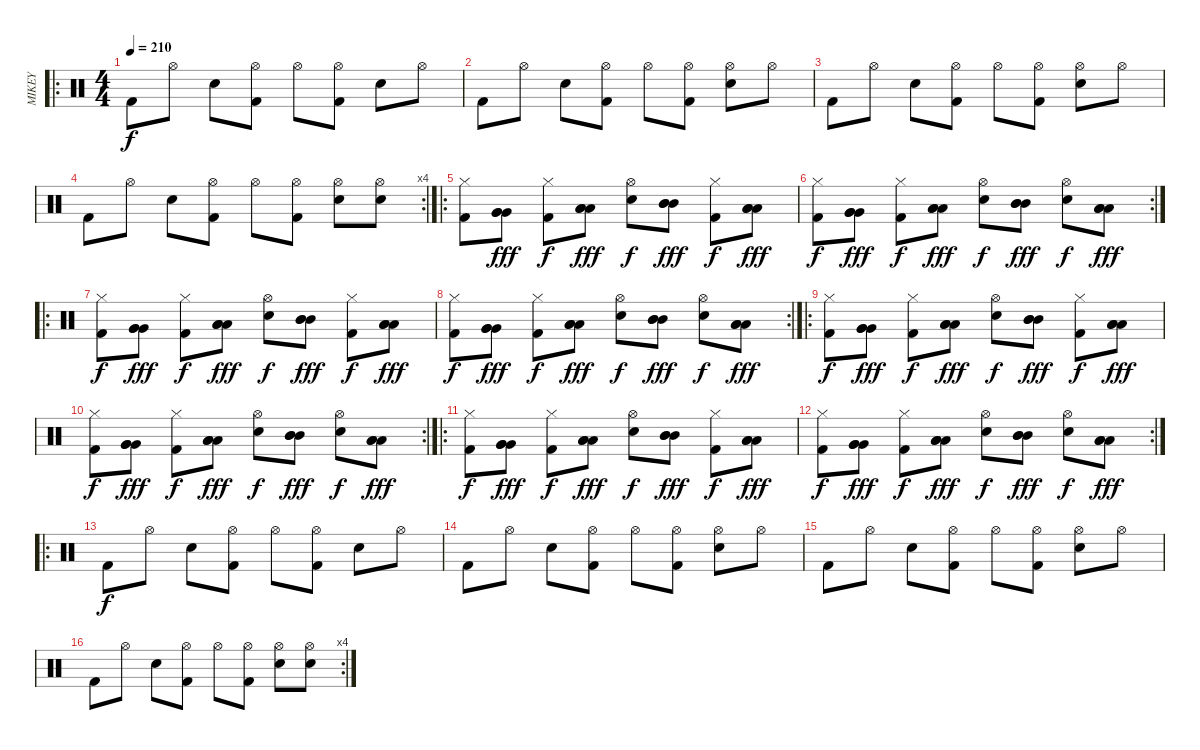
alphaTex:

\track ("MIKEY" "MIKEY") {instrument percussion}
\staff {score}
\articulation defaults
\ro
\ts (4 4)
\tempo 210
\clef neutral
\ks c "Kick (hit) 2".8{dy f} "Hi-Hat (open)".8 "Electric Snare (hit)".8
("Kick (hit) 2" "Hi-Hat (open)").8 "Hi-Hat (open)".8 ("Kick (hit) 2" "Hi-Hat (open)").8 "Electric Snare (hit)".8 "Hi-Hat (open)".8 |
"Kick (hit) 2".8 "Hi-Hat (open)".8 "Electric Snare (hit)".8 ("Kick (hit) 2" "Hi-Hat (open)").8 "Hi-Hat (open)".8 ("Kick (hit) 2" "Hi-Hat (open)").8 ("Electric Snare (hit)" "Hi-Hat (open)").8 "Hi-Hat (open)".8 |
"Kick (hit) 2".8 "Hi-Hat (open)".8 "Electric Snare (hit)".8 ("Kick (hit) 2" "Hi-Hat (open)").8 "Hi-Hat (open)".8 ("Kick (hit) 2" "Hi-Hat (open)").8 ("Electric Snare (hit)" "Hi-Hat (open)").8 "Hi-Hat (open)".8 |
\rc 4 "Kick (hit) 2".8 "Hi-Hat (open)".8 "Electric Snare (hit)".8
("Kick (hit) 2" "Hi-Hat (open)").8 "Hi-Hat (open)".8 ("Kick (hit) 2" "Hi-Hat (open)").8 ("Electric Snare (hit)" "Hi-Hat (open)").8 ("Electric Snare (hit)" "Hi-Hat (open)").8 |
\ro
("Hi-Hat (closed)" "Kick (hit) 2").8 ("Very Low Tom (hit)" "Very Low Tom (hit)" "Very Low Tom (hit)").8{dy fff} ("Hi-Hat (closed)" "Kick (hit) 2").8{dy f} ("Low Tom (hit)" "Low Tom (hit)" "Low Tom (hit)").8{dy fff} ("Hi-Hat (open)" "Electric Snare (hit)").8{dy f} ("Mid Tom (hit)" "Mid Tom (hit)" "Mid Tom (hit)").8{dy fff} ("Hi-Hat (closed)" "Kick (hit) 2").8{dy f} ("Low Tom (hit)" "Low Tom (hit)" "Low Tom (hit)").8{dy fff} |
\rc 2
("Hi-Hat (closed)" "Kick (hit) 2").8{dy f} ("Very Low Tom (hit)" "Very Low Tom (hit)" "Very Low Tom (hit)").8{dy fff} ("Hi-Hat (closed)" "Kick (hit) 2").8{dy f} ("Low Tom (hit)" "Low Tom (hit)" "Low Tom (hit)").8{dy fff} ("Hi-Hat (open)" "Electric Snare (hit)").8{dy f} ("Mid Tom (hit)" "Mid Tom (hit)" "Mid Tom (hit)").8{dy fff} ("Hi-Hat (open)" "Electric Snare (hit)").8{dy f} ("Low Tom (hit)" "Low Tom (hit)" "Low Tom (hit)").8{dy fff} |
\ro
("Hi-Hat (closed)" "Kick (hit) 2").8{dy f} ("Very Low Tom (hit)" "Very Low Tom (hit)" "Very Low Tom (hit)").8{dy fff} ("Hi-Hat (closed)" "Kick (hit) 2").8{dy f} ("Low Tom (hit)" "Low Tom (hit)" "Low Tom (hit)").8{dy fff} ("Hi-Hat (open)" "Electric Snare (hit)").8{dy f} ("Mid Tom (hit)" "Mid Tom (hit)" "Mid Tom (hit)").8{dy fff} ("Hi-Hat (closed)" "Kick (hit) 2").8{dy f} ("Low Tom (hit)" "Low Tom (hit)" "Low Tom (hit)").8{dy fff} |
\rc 2
("Hi-Hat (closed)" "Kick (hit) 2").8{dy f} ("Very Low Tom (hit)" "Very Low Tom (hit)" "Very Low Tom (hit)").8{dy fff} ("Hi-Hat (closed)" "Kick (hit) 2").8{dy f} ("Low Tom (hit)" "Low Tom (hit)" "Low Tom (hit)").8{dy fff} ("Hi-Hat (open)" "Electric Snare (hit)").8{dy f} ("Mid Tom (hit)" "Mid Tom (hit)" "Mid Tom (hit)").8{dy fff} ("Hi-Hat (open)" "Electric Snare (hit)").8{dy f} ("Low Tom (hit)" "Low Tom (hit)" "Low Tom (hit)").8{dy fff} |
\ro
("Hi-Hat (closed)" "Kick (hit) 2").8{dy f} ("Very Low Tom (hit)" "Very Low Tom (hit)" "Very Low Tom (hit)").8{dy fff} ("Hi-Hat (closed)" "Kick (hit) 2").8{dy f} ("Low Tom (hit)" "Low Tom (hit)" "Low Tom (hit)").8{dy fff} ("Hi-Hat (open)" "Electric Snare (hit)").8{dy f} ("Mid Tom (hit)" "Mid Tom (hit)" "Mid Tom (hit)").8{dy fff} ("Hi-Hat (closed)" "Kick (hit) 2").8{dy f} ("Low Tom (hit)" "Low Tom (hit)" "Low Tom (hit)").8{dy fff} |
\rc 2
("Hi-Hat (closed)" "Kick (hit) 2").8{dy f} ("Very Low Tom (hit)" "Very Low Tom (hit)" "Very Low Tom (hit)").8{dy fff} ("Hi-Hat (closed)" "Kick (hit) 2").8{dy f} ("Low Tom (hit)" "Low Tom (hit)" "Low Tom (hit)").8{dy fff} ("Hi-Hat (open)" "Electric Snare (hit)").8{dy f} ("Mid Tom (hit)" "Mid Tom (hit)" "Mid Tom (hit)").8{dy fff} ("Hi-Hat (open)" "Electric Snare (hit)").8{dy f} ("Low Tom (hit)" "Low Tom (hit)" "Low Tom (hit)").8{dy fff} |
\ro
("Hi-Hat (closed)" "Kick (hit) 2").8{dy f} ("Very Low Tom (hit)" "Very Low Tom (hit)" "Very Low Tom (hit)").8{dy fff} ("Hi-Hat (closed)" "Kick (hit) 2").8{dy f} ("Low Tom (hit)" "Low Tom (hit)" "Low Tom (hit)").8{dy fff} ("Hi-Hat (open)" "Electric Snare (hit)").8{dy f} ("Mid Tom (hit)" "Mid Tom (hit)" "Mid Tom (hit)").8{dy fff} ("Hi-Hat (closed)" "Kick (hit) 2").8{dy f} ("Low Tom (hit)" "Low Tom (hit)" "Low Tom (hit)").8{dy fff} |
\rc 2
("Hi-Hat (closed)" "Kick (hit) 2").8{dy f} ("Very Low Tom (hit)" "Very Low Tom (hit)" "Very Low Tom (hit)").8{dy fff} ("Hi-Hat (closed)" "Kick (hit) 2").8{dy f} ("Low Tom (hit)" "Low Tom (hit)" "Low Tom (hit)").8{dy fff} ("Hi-Hat (open)" "Electric Snare (hit)").8{dy f} ("Mid Tom (hit)" "Mid Tom (hit)" "Mid Tom (hit)").8{dy fff} ("Hi-Hat (open)" "Electric Snare (hit)").8{dy f} ("Low Tom (hit)" "Low Tom (hit)" "Low Tom (hit)").8{dy fff} |
\ro "Kick (hit) 2".8{dy f} "Hi-Hat (open)".8 "Electric Snare (hit)".8
("Kick (hit) 2" "Hi-Hat (open)").8 "Hi-Hat (open)".8 ("Kick (hit) 2" "Hi-Hat (open)").8 "Electric Snare (hit)".8 "Hi-Hat (open)".8 |
"Kick (hit) 2".8 "Hi-Hat (open)".8 "Electric Snare (hit)".8 ("Kick (hit) 2" "Hi-Hat (open)").8 "Hi-Hat (open)".8 ("Kick (hit) 2" "Hi-Hat (open)").8 ("Electric Snare (hit)" "Hi-Hat (open)").8 "Hi-Hat (open)".8 |
"Kick (hit) 2".8 "Hi-Hat (open)".8 "Electric Snare (hit)".8 ("Kick (hit) 2" "Hi-Hat (open)").8 "Hi-Hat (open)".8 ("Kick (hit) 2" "Hi-Hat (open)").8 ("Electric Snare (hit)" "Hi-Hat (open)").8 "Hi-Hat (open)".8 |
\rc 4 "Kick (hit) 2".8 "Hi-Hat (open)".8 "Electric Snare (hit)".8
("Kick (hit) 2" "Hi-Hat (open)").8 "Hi-Hat (open)".8 ("Kick (hit) 2" "Hi-Hat (open)").8 ("Electric Snare (hit)" "Hi-Hat (open)").8 ("Electric Snare (hit)" "Hi-Hat (open)").8
